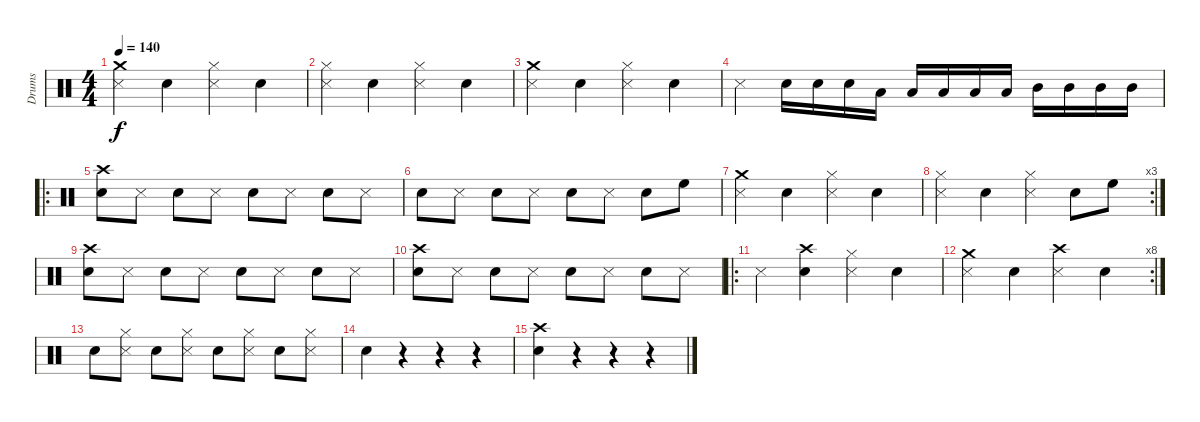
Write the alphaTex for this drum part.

\track ("Drums" "Drums") {instrument percussion}
\staff {score}
\articulation defaults
\ts (4 4)
\tempo 140
\clef neutral
\ks c
("Crash medium (hit)" "Metronome (hit)").4{dy f} "Electric Snare (hit)".4 ("Hi-Hat (closed)" "Metronome (hit)").4 "Electric Snare (hit)".4 |
("Hi-Hat (closed)" "Metronome (hit)").4 "Electric Snare (hit)".4 ("Hi-Hat (closed)" "Metronome (hit)").4 "Electric Snare (hit)".4 |
("Crash medium (hit)" "Metronome (hit)").4 "Electric Snare (hit)".4 ("Hi-Hat (closed)" "Metronome (hit)").4 "Electric Snare (hit)".4 |
"Metronome (hit)".4 "Electric Snare (hit)".16 "Electric Snare (hit)".16 "Electric Snare (hit)".16 "Low Tom (hit)".16 "Low Tom (hit)".16 "Low Tom (hit)".16 "Low Tom (hit)".16 "Low Tom (hit)".16 "Mid Tom (hit)".16 "Mid Tom (hit)".16 "Mid Tom (hit)".16 "Mid Tom (hit)".16 |
\ro
("Crash high (hit)" "Electric Snare (hit)").8 "Metronome (hit)".8 "Electric Snare (hit)".8 "Metronome (hit)".8 "Electric Snare (hit)".8 "Metronome (hit)".8 "Electric Snare (hit)".8 "Metronome (hit)".8 |
"Electric Snare (hit)".8 "Metronome (hit)".8 "Electric Snare (hit)".8 "Metronome (hit)".8 "Electric Snare (hit)".8 "Metronome (hit)".8 "Electric Snare (hit)".8 "High Floor Tom (hit)".8 |
("Crash medium (hit)" "Metronome (hit)").4 "Electric Snare (hit)".4 ("Hi-Hat (closed)" "Metronome (hit)").4 "Electric Snare (hit)".4 |
\rc 3
("Hi-Hat (closed)" "Metronome (hit)").4 "Electric Snare (hit)".4 ("Hi-Hat (closed)" "Metronome (hit)").4 "Electric Snare (hit)".8 "High Floor Tom (hit)".8 |
("Crash high (hit)" "Electric Snare (hit)").8 "Metronome (hit)".8 "Electric Snare (hit)".8 "Metronome (hit)".8 "Electric Snare (hit)".8 "Metronome (hit)".8 "Electric Snare (hit)".8 "Metronome (hit)".8 |
("Crash high (hit)" "Electric Snare (hit)").8 "Metronome (hit)".8 "Electric Snare (hit)".8 "Metronome (hit)".8 "Electric Snare (hit)".8 "Metronome (hit)".8 "Electric Snare (hit)".8 "Metronome (hit)".8 |
\ro "Metronome (hit)".4
("Crash high (hit)" "Electric Snare (hit)").4 ("Hi-Hat (closed)" "Metronome (hit)").4 "Electric Snare (hit)".4 |
\rc 8
("Crash medium (hit)" "Metronome (hit)").4 "Electric Snare (hit)".4 ("Crash high (hit)" "Metronome (hit)").4 "Electric Snare (hit)".4 |
"Electric Snare (hit)".8 ("Hi-Hat (closed)" "Metronome (hit)").8 "Electric Snare (hit)".8 ("Hi-Hat (closed)" "Metronome (hit)").8 "Electric Snare (hit)".8 ("Hi-Hat (closed)" "Metronome (hit)").8 "Electric Snare (hit)".8 ("Hi-Hat (closed)" "Metronome (hit)").8 |
"Electric Snare (hit)".4 r.4 r.4 r.4 |
("Crash high (hit)" "Electric Snare (hit)").4 r.4 r.4 r.4
